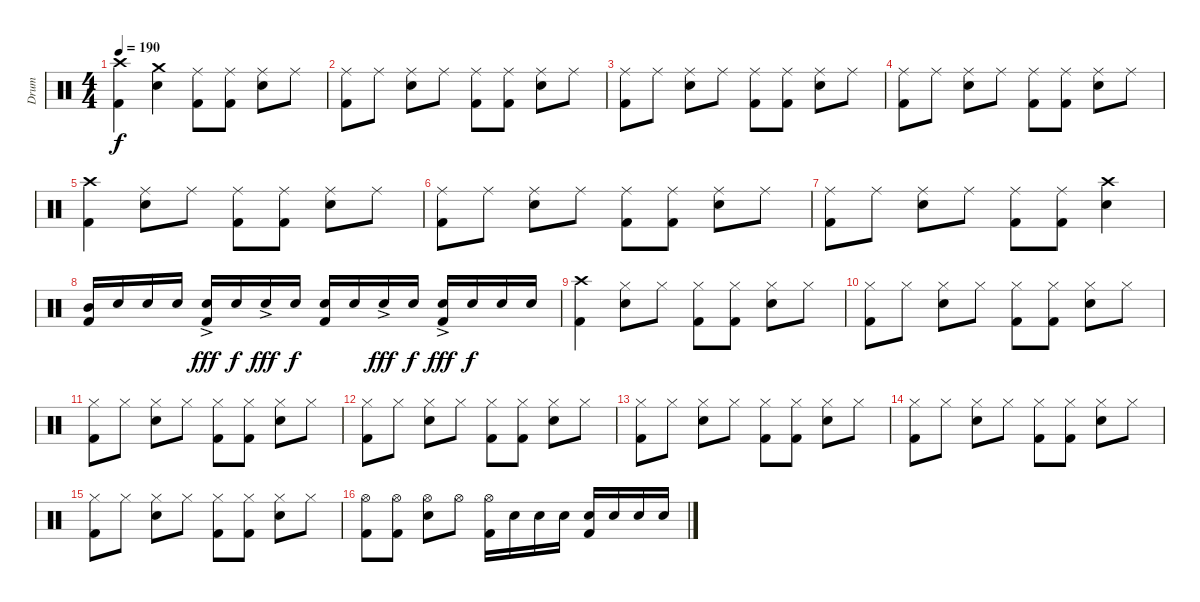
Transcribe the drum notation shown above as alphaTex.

\track ("Drum" "Drum") {instrument percussion}
\staff {score}
\articulation defaults
\ts (4 4)
\tempo 190
\clef neutral
\ks c
("Crash high (hit)" "Kick (hit) 2").4{dy f} ("Crash medium (hit)" "Electric Snare (hit)").4 ("Ride (middle)" "Kick (hit) 2").8 ("Ride (middle)" "Kick (hit) 2").8 ("Ride (middle)" "Electric Snare (hit)").8 "Ride (middle)".8 |
("Ride (middle)" "Kick (hit) 2").8 "Ride (middle)".8 ("Ride (middle)" "Electric Snare (hit)").8 "Ride (middle)".8 ("Ride (middle)" "Kick (hit) 2").8 ("Ride (middle)" "Kick (hit) 2").8 ("Ride (middle)" "Electric Snare (hit)").8 "Ride (middle)".8 |
("Ride (middle)" "Kick (hit) 2").8 "Ride (middle)".8 ("Ride (middle)" "Electric Snare (hit)").8 "Ride (middle)".8 ("Ride (middle)" "Kick (hit) 2").8 ("Ride (middle)" "Kick (hit) 2").8 ("Ride (middle)" "Electric Snare (hit)").8 "Ride (middle)".8 |
("Ride (middle)" "Kick (hit) 2").8 "Ride (middle)".8 ("Ride (middle)" "Electric Snare (hit)").8 "Ride (middle)".8 ("Ride (middle)" "Kick (hit) 2").8 ("Ride (middle)" "Kick (hit) 2").8 ("Ride (middle)" "Electric Snare (hit)").8 "Ride (middle)".8 |
("Crash high (hit)" "Kick (hit) 2").4 ("Ride (middle)" "Electric Snare (hit)").8 "Ride (middle)".8 ("Ride (middle)" "Kick (hit) 2").8 ("Ride (middle)" "Kick (hit) 2").8 ("Ride (middle)" "Electric Snare (hit)").8 "Ride (middle)".8 |
("Ride (middle)" "Kick (hit) 2").8 "Ride (middle)".8 ("Ride (middle)" "Electric Snare (hit)").8 "Ride (middle)".8 ("Ride (middle)" "Kick (hit) 2").8 ("Ride (middle)" "Kick (hit) 2").8 ("Ride (middle)" "Electric Snare (hit)").8 "Ride (middle)".8 |
("Ride (middle)" "Kick (hit) 2").8 "Ride (middle)".8 ("Ride (middle)" "Electric Snare (hit)").8 "Ride (middle)".8 ("Ride (middle)" "Kick (hit) 2").8 ("Ride (middle)" "Kick (hit) 2").8 ("Crash high (hit)" "Electric Snare (hit)").4 |
("Mid Tom (hit)" "Kick (hit) 2").16 "Electric Snare (hit)".16 "Electric Snare (hit)".16 "Electric Snare (hit)".16 ("Electric Snare (hit)"{ac} "Kick (hit) 2").16{dy fff} "Electric Snare (hit)".16{dy f} "Electric Snare (hit)"{ac}.16{dy fff} "Electric Snare (hit)".16{dy f} ("Electric Snare (hit)" "Kick (hit) 2").16 "Electric Snare (hit)".16 "Electric Snare (hit)"{ac}.16{dy fff} "Electric Snare (hit)".16{dy f} ("Electric Snare (hit)"{ac} "Kick (hit) 2").16{dy fff} "Electric Snare (hit)".16{dy f} "Electric Snare (hit)".16 "Electric Snare (hit)".16 |
("Crash high (hit)" "Kick (hit) 2").4 ("Hi-Hat (closed)" "Electric Snare (hit)").8 "Hi-Hat (closed)".8 ("Hi-Hat (closed)" "Kick (hit) 2").8 ("Hi-Hat (closed)" "Kick (hit) 2").8 ("Hi-Hat (closed)" "Electric Snare (hit)").8 "Hi-Hat (closed)".8 |
("Hi-Hat (closed)" "Kick (hit) 2").8 "Hi-Hat (closed)".8 ("Hi-Hat (closed)" "Electric Snare (hit)").8 "Hi-Hat (closed)".8 ("Hi-Hat (closed)" "Kick (hit) 2").8 ("Hi-Hat (closed)" "Kick (hit) 2").8 ("Hi-Hat (closed)" "Electric Snare (hit)").8 "Hi-Hat (closed)".8 |
("Hi-Hat (closed)" "Kick (hit) 2").8 "Hi-Hat (closed)".8 ("Hi-Hat (closed)" "Electric Snare (hit)").8 "Hi-Hat (closed)".8 ("Hi-Hat (closed)" "Kick (hit) 2").8 ("Hi-Hat (closed)" "Kick (hit) 2").8 ("Hi-Hat (closed)" "Electric Snare (hit)").8 "Hi-Hat (closed)".8 |
("Hi-Hat (closed)" "Kick (hit) 2").8 "Hi-Hat (closed)".8 ("Hi-Hat (closed)" "Electric Snare (hit)").8 "Hi-Hat (closed)".8 ("Hi-Hat (closed)" "Kick (hit) 2").8 ("Hi-Hat (closed)" "Kick (hit) 2").8 ("Hi-Hat (closed)" "Electric Snare (hit)").8 "Hi-Hat (closed)".8 |
("Hi-Hat (closed)" "Kick (hit) 2").8 "Hi-Hat (closed)".8 ("Hi-Hat (closed)" "Electric Snare (hit)").8 "Hi-Hat (closed)".8 ("Hi-Hat (closed)" "Kick (hit) 2").8 ("Hi-Hat (closed)" "Kick (hit) 2").8 ("Hi-Hat (closed)" "Electric Snare (hit)").8 "Hi-Hat (closed)".8 |
("Hi-Hat (closed)" "Kick (hit) 2").8 "Hi-Hat (closed)".8 ("Hi-Hat (closed)" "Electric Snare (hit)").8 "Hi-Hat (closed)".8 ("Hi-Hat (closed)" "Kick (hit) 2").8 ("Hi-Hat (closed)" "Kick (hit) 2").8 ("Hi-Hat (closed)" "Electric Snare (hit)").8 "Hi-Hat (closed)".8 |
("Hi-Hat (closed)" "Kick (hit) 2").8 "Hi-Hat (closed)".8 ("Hi-Hat (closed)" "Electric Snare (hit)").8 "Hi-Hat (closed)".8 ("Hi-Hat (closed)" "Kick (hit) 2").8 ("Hi-Hat (closed)" "Kick (hit) 2").8 ("Hi-Hat (closed)" "Electric Snare (hit)").8 "Hi-Hat (closed)".8 |
("Hi-Hat (open)" "Kick (hit) 2").8 ("Hi-Hat (open)" "Kick (hit) 2").8 ("Hi-Hat (open)" "Electric Snare (hit)").8 "Hi-Hat (open)".8 ("Hi-Hat (open)" "Kick (hit) 2").16 "Electric Snare (hit)".16 "Electric Snare (hit)".16 "Electric Snare (hit)".16 ("Electric Snare (hit)" "Kick (hit) 2").16 "Electric Snare (hit)".16 "Electric Snare (hit)".16 "Electric Snare (hit)".16
